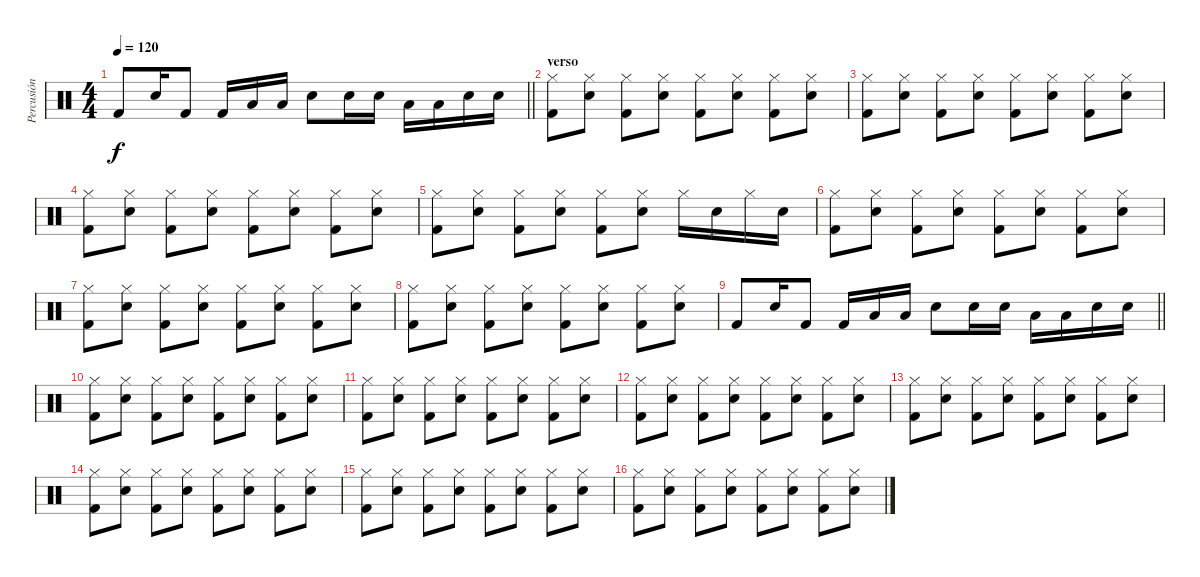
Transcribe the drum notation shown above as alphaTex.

\track ("Percusión" "Percusión") {instrument percussion}
\staff {score}
\articulation defaults
\ts (4 4)
\tempo 120
\clef neutral
\barLineRight lightlight
\ks c "Kick (hit) 2".8{dy f} "Electric Snare (hit)".16 "Kick (hit) 2".8 "Kick (hit) 2".16 "Low Tom (hit)".16 "Low Tom (hit)".16 "Electric Snare (hit)".8 "Electric Snare (hit)".16 "Electric Snare (hit)".16 "Low Tom (hit)".16 "Low Tom (hit)".16 "Electric Snare (hit)".16 "Electric Snare (hit)".16
|
\section ("" "verso")
("Hi-Hat (closed)" "Kick (hit) 2").8 ("Hi-Hat (closed)" "Electric Snare (hit)").8 ("Hi-Hat (closed)" "Kick (hit) 2").8 ("Hi-Hat (closed)" "Electric Snare (hit)").8 ("Hi-Hat (closed)" "Kick (hit) 2").8 ("Hi-Hat (closed)" "Electric Snare (hit)").8 ("Hi-Hat (closed)" "Kick (hit) 2").8 ("Hi-Hat (closed)" "Electric Snare (hit)").8 |
("Hi-Hat (closed)" "Kick (hit) 2").8 ("Hi-Hat (closed)" "Electric Snare (hit)").8 ("Hi-Hat (closed)" "Kick (hit) 2").8 ("Hi-Hat (closed)" "Electric Snare (hit)").8 ("Hi-Hat (closed)" "Kick (hit) 2").8 ("Hi-Hat (closed)" "Electric Snare (hit)").8 ("Hi-Hat (closed)" "Kick (hit) 2").8 ("Hi-Hat (closed)" "Electric Snare (hit)").8 |
("Hi-Hat (closed)" "Kick (hit) 2").8 ("Hi-Hat (closed)" "Electric Snare (hit)").8 ("Hi-Hat (closed)" "Kick (hit) 2").8 ("Hi-Hat (closed)" "Electric Snare (hit)").8 ("Hi-Hat (closed)" "Kick (hit) 2").8 ("Hi-Hat (closed)" "Electric Snare (hit)").8 ("Hi-Hat (closed)" "Kick (hit) 2").8 ("Hi-Hat (closed)" "Electric Snare (hit)").8 |
("Hi-Hat (closed)" "Kick (hit) 2").8 ("Hi-Hat (closed)" "Electric Snare (hit)").8 ("Hi-Hat (closed)" "Kick (hit) 2").8 ("Hi-Hat (closed)" "Electric Snare (hit)").8 ("Hi-Hat (closed)" "Kick (hit) 2").8 ("Hi-Hat (closed)" "Electric Snare (hit)").8 "Hi-Hat (closed)".16 "Electric Snare (hit)".16 "Hi-Hat (closed)".16 "Electric Snare (hit)".16 |
("Hi-Hat (closed)" "Kick (hit) 2").8 ("Hi-Hat (closed)" "Electric Snare (hit)").8 ("Hi-Hat (closed)" "Kick (hit) 2").8 ("Hi-Hat (closed)" "Electric Snare (hit)").8 ("Hi-Hat (closed)" "Kick (hit) 2").8 ("Hi-Hat (closed)" "Electric Snare (hit)").8 ("Hi-Hat (closed)" "Kick (hit) 2").8 ("Hi-Hat (closed)" "Electric Snare (hit)").8 |
("Hi-Hat (closed)" "Kick (hit) 2").8 ("Hi-Hat (closed)" "Electric Snare (hit)").8 ("Hi-Hat (closed)" "Kick (hit) 2").8 ("Hi-Hat (closed)" "Electric Snare (hit)").8 ("Hi-Hat (closed)" "Kick (hit) 2").8 ("Hi-Hat (closed)" "Electric Snare (hit)").8 ("Hi-Hat (closed)" "Kick (hit) 2").8 ("Hi-Hat (closed)" "Electric Snare (hit)").8 |
("Hi-Hat (closed)" "Kick (hit) 2").8 ("Hi-Hat (closed)" "Electric Snare (hit)").8 ("Hi-Hat (closed)" "Kick (hit) 2").8 ("Hi-Hat (closed)" "Electric Snare (hit)").8 ("Hi-Hat (closed)" "Kick (hit) 2").8 ("Hi-Hat (closed)" "Electric Snare (hit)").8 ("Hi-Hat (closed)" "Kick (hit) 2").8 ("Hi-Hat (closed)" "Electric Snare (hit)").8 |
\barLineRight lightlight "Kick (hit) 2".8 "Electric Snare (hit)".16 "Kick (hit) 2".8 "Kick (hit) 2".16 "Low Tom (hit)".16 "Low Tom (hit)".16 "Electric Snare (hit)".8 "Electric Snare (hit)".16 "Electric Snare (hit)".16 "Low Tom (hit)".16 "Low Tom (hit)".16 "Electric Snare (hit)".16 "Electric Snare (hit)".16
|
("Hi-Hat (closed)" "Kick (hit) 2").8 ("Hi-Hat (closed)" "Electric Snare (hit)").8 ("Hi-Hat (closed)" "Kick (hit) 2").8 ("Hi-Hat (closed)" "Electric Snare (hit)").8 ("Hi-Hat (closed)" "Kick (hit) 2").8 ("Hi-Hat (closed)" "Electric Snare (hit)").8 ("Hi-Hat (closed)" "Kick (hit) 2").8 ("Hi-Hat (closed)" "Electric Snare (hit)").8 |
("Hi-Hat (closed)" "Kick (hit) 2").8 ("Hi-Hat (closed)" "Electric Snare (hit)").8 ("Hi-Hat (closed)" "Kick (hit) 2").8 ("Hi-Hat (closed)" "Electric Snare (hit)").8 ("Hi-Hat (closed)" "Kick (hit) 2").8 ("Hi-Hat (closed)" "Electric Snare (hit)").8 ("Hi-Hat (closed)" "Kick (hit) 2").8 ("Hi-Hat (closed)" "Electric Snare (hit)").8 |
("Hi-Hat (closed)" "Kick (hit) 2").8 ("Hi-Hat (closed)" "Electric Snare (hit)").8 ("Hi-Hat (closed)" "Kick (hit) 2").8 ("Hi-Hat (closed)" "Electric Snare (hit)").8 ("Hi-Hat (closed)" "Kick (hit) 2").8 ("Hi-Hat (closed)" "Electric Snare (hit)").8 ("Hi-Hat (closed)" "Kick (hit) 2").8 ("Hi-Hat (closed)" "Electric Snare (hit)").8 |
("Hi-Hat (closed)" "Kick (hit) 2").8 ("Hi-Hat (closed)" "Electric Snare (hit)").8 ("Hi-Hat (closed)" "Kick (hit) 2").8 ("Hi-Hat (closed)" "Electric Snare (hit)").8 ("Hi-Hat (closed)" "Kick (hit) 2").8 ("Hi-Hat (closed)" "Electric Snare (hit)").8 ("Hi-Hat (closed)" "Kick (hit) 2").8 ("Hi-Hat (closed)" "Electric Snare (hit)").8 |
("Hi-Hat (closed)" "Kick (hit) 2").8 ("Hi-Hat (closed)" "Electric Snare (hit)").8 ("Hi-Hat (closed)" "Kick (hit) 2").8 ("Hi-Hat (closed)" "Electric Snare (hit)").8 ("Hi-Hat (closed)" "Kick (hit) 2").8 ("Hi-Hat (closed)" "Electric Snare (hit)").8 ("Hi-Hat (closed)" "Kick (hit) 2").8 ("Hi-Hat (closed)" "Electric Snare (hit)").8 |
("Hi-Hat (closed)" "Kick (hit) 2").8 ("Hi-Hat (closed)" "Electric Snare (hit)").8 ("Hi-Hat (closed)" "Kick (hit) 2").8 ("Hi-Hat (closed)" "Electric Snare (hit)").8 ("Hi-Hat (closed)" "Kick (hit) 2").8 ("Hi-Hat (closed)" "Electric Snare (hit)").8 ("Hi-Hat (closed)" "Kick (hit) 2").8 ("Hi-Hat (closed)" "Electric Snare (hit)").8 |
("Hi-Hat (closed)" "Kick (hit) 2").8 ("Hi-Hat (closed)" "Electric Snare (hit)").8 ("Hi-Hat (closed)" "Kick (hit) 2").8 ("Hi-Hat (closed)" "Electric Snare (hit)").8 ("Hi-Hat (closed)" "Kick (hit) 2").8 ("Hi-Hat (closed)" "Electric Snare (hit)").8 ("Hi-Hat (closed)" "Kick (hit) 2").8 ("Hi-Hat (closed)" "Electric Snare (hit)").8
